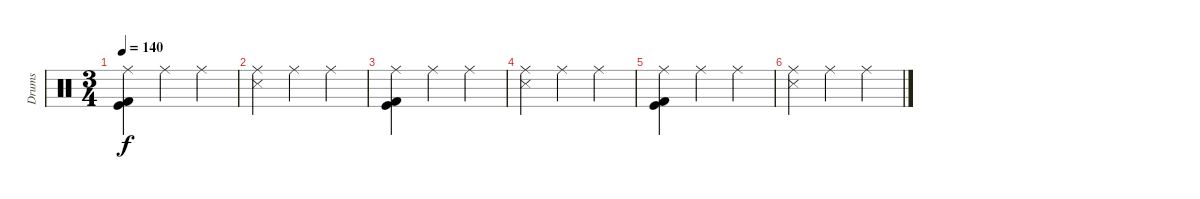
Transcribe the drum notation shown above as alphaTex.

\track ("Drums" "Drums") {instrument percussion}
\staff {score}
\articulation defaults
\ts (3 4)
\tempo 140
\clef neutral
\ks c
("Ride (middle)" "Kick (hit) 2" "Kick (hit)").4{dy f} "Ride (middle)".4 "Ride (middle)".4{volume 1} |
("Ride (middle)" "Snare (side stick) 3").4 "Ride (middle)".4 "Ride (middle)".4 |
("Ride (middle)" "Kick (hit) 2" "Kick (hit)").4 "Ride (middle)".4 "Ride (middle)".4 |
("Ride (middle)" "Snare (side stick) 3").4 "Ride (middle)".4 "Ride (middle)".4 |
("Ride (middle)" "Kick (hit) 2" "Kick (hit)").4 "Ride (middle)".4 "Ride (middle)".4 |
("Ride (middle)" "Snare (side stick) 3").4 "Ride (middle)".4 "Ride (middle)".4
